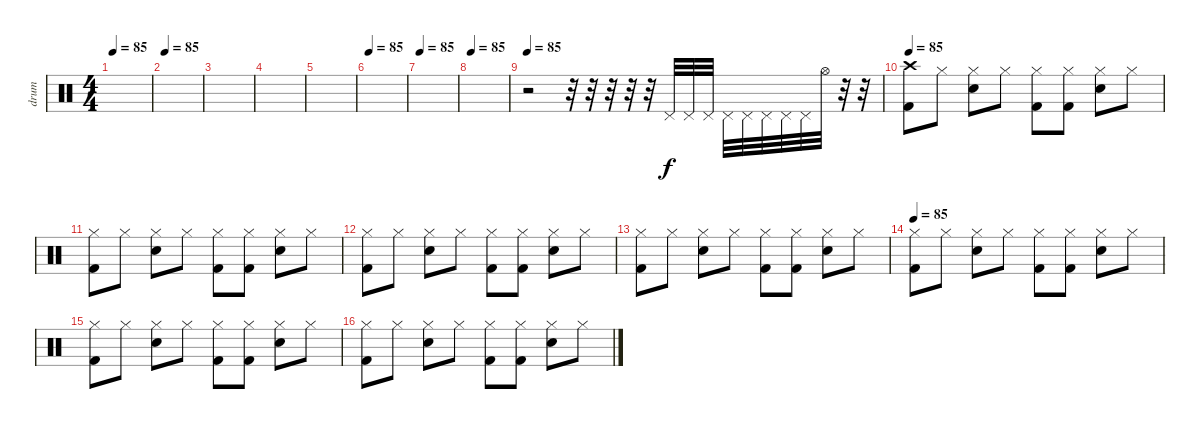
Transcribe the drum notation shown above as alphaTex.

\track ("drum" "drum") {instrument percussion}
\staff {score}
\articulation defaults
\ts (4 4)
\tempo 85
\clef neutral
\ks c
|
\tempo 85
|
|
|
|
\tempo 85
|
\tempo 85
|
\tempo 85
|
\tempo 85
r.2 r.32 r.32 r.32 r.32 r.32 "Pedal Hi-Hat (hit)".32 "Pedal Hi-Hat (hit)".32 "Pedal Hi-Hat (hit)".32 "Pedal Hi-Hat (hit)".32 "Pedal Hi-Hat (hit)".32 "Pedal Hi-Hat (hit)".32 "Pedal Hi-Hat (hit)".32 "Pedal Hi-Hat (hit)".32 "Hi-Hat (open)".32 r.32 r.32 |
\tempo 85
("Crash high (hit)" "Kick (hit) 2").8 "Hi-Hat (closed)".8 ("Hi-Hat (closed)" "Snare (hit) 2").8 "Hi-Hat (closed)".8 ("Hi-Hat (closed)" "Kick (hit) 2").8 ("Hi-Hat (closed)" "Kick (hit) 2").8 ("Hi-Hat (closed)" "Snare (hit) 2").8 "Hi-Hat (closed)".8 |
("Hi-Hat (closed)" "Kick (hit) 2").8 "Hi-Hat (closed)".8 ("Hi-Hat (closed)" "Snare (hit) 2").8 "Hi-Hat (closed)".8 ("Hi-Hat (closed)" "Kick (hit) 2").8 ("Hi-Hat (closed)" "Kick (hit) 2").8 ("Hi-Hat (closed)" "Snare (hit) 2").8 "Hi-Hat (closed)".8 |
("Hi-Hat (closed)" "Kick (hit) 2").8 "Hi-Hat (closed)".8 ("Hi-Hat (closed)" "Snare (hit) 2").8 "Hi-Hat (closed)".8 ("Hi-Hat (closed)" "Kick (hit) 2").8 ("Hi-Hat (closed)" "Kick (hit) 2").8 ("Hi-Hat (closed)" "Snare (hit) 2").8 "Hi-Hat (closed)".8 |
("Hi-Hat (closed)" "Kick (hit) 2").8 "Hi-Hat (closed)".8 ("Hi-Hat (closed)" "Snare (hit) 2").8 "Hi-Hat (closed)".8 ("Hi-Hat (closed)" "Kick (hit) 2").8 ("Hi-Hat (closed)" "Kick (hit) 2").8 ("Hi-Hat (closed)" "Snare (hit) 2").8 "Hi-Hat (closed)".8 |
\tempo 85
("Hi-Hat (closed)" "Kick (hit) 2").8 "Hi-Hat (closed)".8 ("Hi-Hat (closed)" "Snare (hit) 2").8 "Hi-Hat (closed)".8 ("Hi-Hat (closed)" "Kick (hit) 2").8 ("Hi-Hat (closed)" "Kick (hit) 2").8 ("Hi-Hat (closed)" "Snare (hit) 2").8 "Hi-Hat (closed)".8 |
("Hi-Hat (closed)" "Kick (hit) 2").8 "Hi-Hat (closed)".8 ("Hi-Hat (closed)" "Snare (hit) 2").8 "Hi-Hat (closed)".8 ("Hi-Hat (closed)" "Kick (hit) 2").8 ("Hi-Hat (closed)" "Kick (hit) 2").8 ("Hi-Hat (closed)" "Snare (hit) 2").8 "Hi-Hat (closed)".8 |
("Hi-Hat (closed)" "Kick (hit) 2").8 "Hi-Hat (closed)".8 ("Hi-Hat (closed)" "Snare (hit) 2").8 "Hi-Hat (closed)".8 ("Hi-Hat (closed)" "Kick (hit) 2").8 ("Hi-Hat (closed)" "Kick (hit) 2").8 ("Hi-Hat (closed)" "Snare (hit) 2").8 "Hi-Hat (closed)".8
